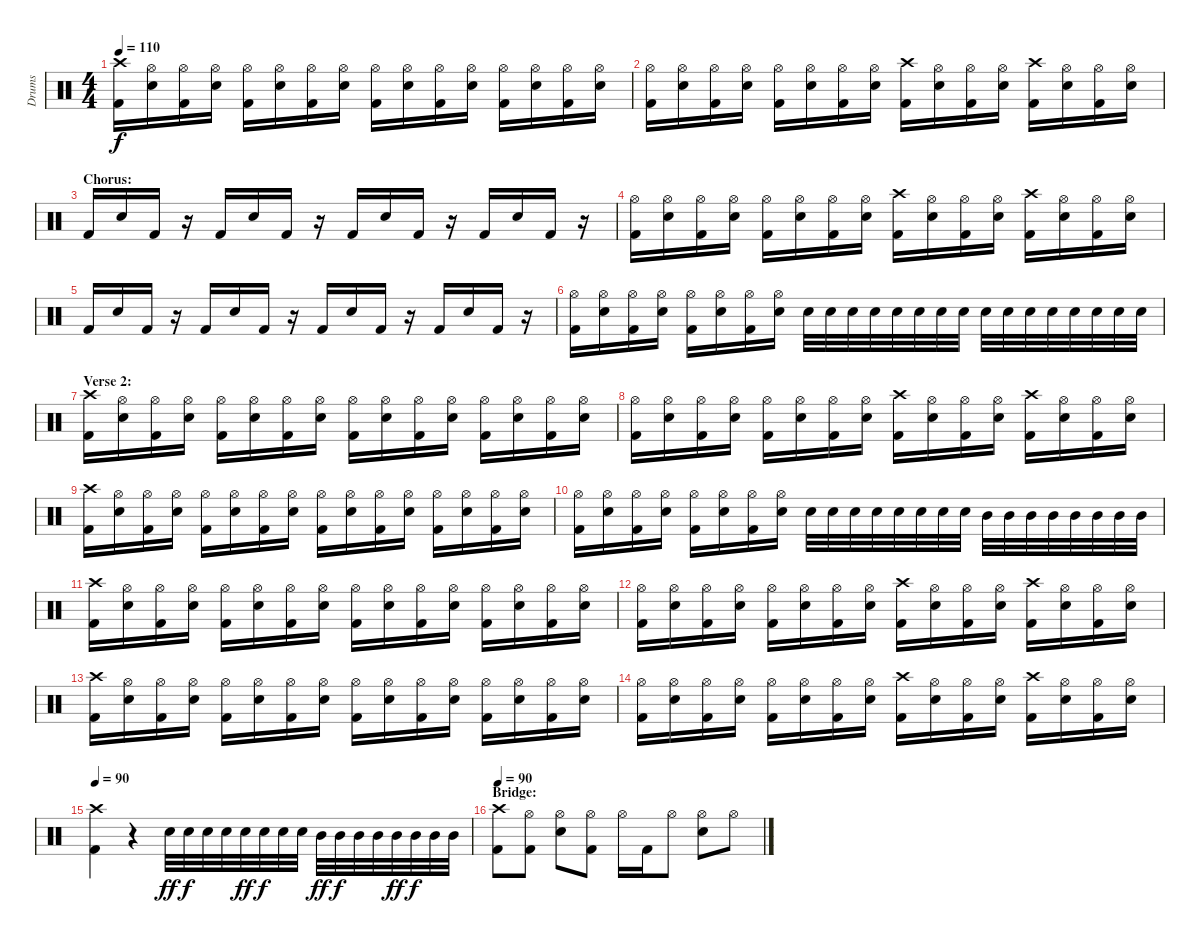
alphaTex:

\track ("Drums" "Drums") {instrument percussion}
\staff {score}
\articulation defaults
\ts (4 4)
\tempo 110
\clef neutral
\ks c
("Crash high (hit)" "Kick (hit) 2").16{dy f} ("Hi-Hat (open)" "Electric Snare (hit)").16 ("Hi-Hat (open)" "Kick (hit) 2").16 ("Hi-Hat (open)" "Electric Snare (hit)").16 ("Hi-Hat (open)" "Kick (hit) 2").16 ("Hi-Hat (open)" "Electric Snare (hit)").16 ("Hi-Hat (open)" "Kick (hit) 2").16 ("Hi-Hat (open)" "Electric Snare (hit)").16 ("Hi-Hat (open)" "Kick (hit) 2").16 ("Hi-Hat (open)" "Electric Snare (hit)").16 ("Hi-Hat (open)" "Kick (hit) 2").16 ("Hi-Hat (open)" "Electric Snare (hit)").16 ("Hi-Hat (open)" "Kick (hit) 2").16 ("Hi-Hat (open)" "Electric Snare (hit)").16 ("Hi-Hat (open)" "Kick (hit) 2").16 ("Hi-Hat (open)" "Electric Snare (hit)").16 |
("Hi-Hat (open)" "Kick (hit) 2").16 ("Hi-Hat (open)" "Electric Snare (hit)").16 ("Hi-Hat (open)" "Kick (hit) 2").16 ("Hi-Hat (open)" "Electric Snare (hit)").16 ("Hi-Hat (open)" "Kick (hit) 2").16 ("Hi-Hat (open)" "Electric Snare (hit)").16 ("Hi-Hat (open)" "Kick (hit) 2").16 ("Hi-Hat (open)" "Electric Snare (hit)").16 ("Crash high (hit)" "Kick (hit) 2").16 ("Hi-Hat (open)" "Electric Snare (hit)").16 ("Hi-Hat (open)" "Kick (hit) 2").16 ("Hi-Hat (open)" "Electric Snare (hit)").16 ("Crash high (hit)" "Kick (hit) 2").16 ("Hi-Hat (open)" "Electric Snare (hit)").16 ("Hi-Hat (open)" "Kick (hit) 2").16 ("Hi-Hat (open)" "Electric Snare (hit)").16 |
\section ("" "Chorus:")
"Kick (hit) 2".16 "Electric Snare (hit)".16 "Kick (hit) 2".16 r.16 "Kick (hit) 2".16 "Electric Snare (hit)".16 "Kick (hit) 2".16 r.16 "Kick (hit) 2".16 "Electric Snare (hit)".16 "Kick (hit) 2".16 r.16 "Kick (hit) 2".16 "Electric Snare (hit)".16 "Kick (hit) 2".16 r.16 |
("Hi-Hat (open)" "Kick (hit) 2").16 ("Hi-Hat (open)" "Electric Snare (hit)").16 ("Hi-Hat (open)" "Kick (hit) 2").16 ("Hi-Hat (open)" "Electric Snare (hit)").16 ("Hi-Hat (open)" "Kick (hit) 2").16 ("Hi-Hat (open)" "Electric Snare (hit)").16 ("Hi-Hat (open)" "Kick (hit) 2").16 ("Hi-Hat (open)" "Electric Snare (hit)").16 ("Crash high (hit)" "Kick (hit) 2").16 ("Hi-Hat (open)" "Electric Snare (hit)").16 ("Hi-Hat (open)" "Kick (hit) 2").16 ("Hi-Hat (open)" "Electric Snare (hit)").16 ("Crash high (hit)" "Kick (hit) 2").16 ("Hi-Hat (open)" "Electric Snare (hit)").16 ("Hi-Hat (open)" "Kick (hit) 2").16 ("Hi-Hat (open)" "Electric Snare (hit)").16 |
"Kick (hit) 2".16 "Electric Snare (hit)".16 "Kick (hit) 2".16 r.16 "Kick (hit) 2".16 "Electric Snare (hit)".16 "Kick (hit) 2".16 r.16 "Kick (hit) 2".16 "Electric Snare (hit)".16 "Kick (hit) 2".16 r.16 "Kick (hit) 2".16 "Electric Snare (hit)".16 "Kick (hit) 2".16 r.16 |
("Hi-Hat (open)" "Kick (hit) 2").16 ("Hi-Hat (open)" "Electric Snare (hit)").16 ("Hi-Hat (open)" "Kick (hit) 2").16 ("Hi-Hat (open)" "Electric Snare (hit)").16 ("Hi-Hat (open)" "Kick (hit) 2").16 ("Hi-Hat (open)" "Electric Snare (hit)").16 ("Hi-Hat (open)" "Kick (hit) 2").16 ("Hi-Hat (open)" "Electric Snare (hit)").16 "Electric Snare (hit)".32 "Electric Snare (hit)".32 "Electric Snare (hit)".32 "Electric Snare (hit)".32 "Electric Snare (hit)".32 "Electric Snare (hit)".32 "Electric Snare (hit)".32 "Electric Snare (hit)".32 "Electric Snare (hit)".32 "Electric Snare (hit)".32 "Electric Snare (hit)".32 "Electric Snare (hit)".32 "Electric Snare (hit)".32 "Electric Snare (hit)".32 "Electric Snare (hit)".32 "Electric Snare (hit)".32 |
\section ("" "Verse 2:")
("Crash high (hit)" "Kick (hit) 2").16 ("Hi-Hat (open)" "Electric Snare (hit)").16 ("Hi-Hat (open)" "Kick (hit) 2").16 ("Hi-Hat (open)" "Electric Snare (hit)").16 ("Hi-Hat (open)" "Kick (hit) 2").16 ("Hi-Hat (open)" "Electric Snare (hit)").16 ("Hi-Hat (open)" "Kick (hit) 2").16 ("Hi-Hat (open)" "Electric Snare (hit)").16 ("Hi-Hat (open)" "Kick (hit) 2").16 ("Hi-Hat (open)" "Electric Snare (hit)").16 ("Hi-Hat (open)" "Kick (hit) 2").16 ("Hi-Hat (open)" "Electric Snare (hit)").16 ("Hi-Hat (open)" "Kick (hit) 2").16 ("Hi-Hat (open)" "Electric Snare (hit)").16 ("Hi-Hat (open)" "Kick (hit) 2").16 ("Hi-Hat (open)" "Electric Snare (hit)").16 |
("Hi-Hat (open)" "Kick (hit) 2").16 ("Hi-Hat (open)" "Electric Snare (hit)").16 ("Hi-Hat (open)" "Kick (hit) 2").16 ("Hi-Hat (open)" "Electric Snare (hit)").16 ("Hi-Hat (open)" "Kick (hit) 2").16 ("Hi-Hat (open)" "Electric Snare (hit)").16 ("Hi-Hat (open)" "Kick (hit) 2").16 ("Hi-Hat (open)" "Electric Snare (hit)").16 ("Crash high (hit)" "Kick (hit) 2").16 ("Hi-Hat (open)" "Electric Snare (hit)").16 ("Hi-Hat (open)" "Kick (hit) 2").16 ("Hi-Hat (open)" "Electric Snare (hit)").16 ("Crash high (hit)" "Kick (hit) 2").16 ("Hi-Hat (open)" "Electric Snare (hit)").16 ("Hi-Hat (open)" "Kick (hit) 2").16 ("Hi-Hat (open)" "Electric Snare (hit)").16 |
("Crash high (hit)" "Kick (hit) 2").16 ("Hi-Hat (open)" "Electric Snare (hit)").16 ("Hi-Hat (open)" "Kick (hit) 2").16 ("Hi-Hat (open)" "Electric Snare (hit)").16 ("Hi-Hat (open)" "Kick (hit) 2").16 ("Hi-Hat (open)" "Electric Snare (hit)").16 ("Hi-Hat (open)" "Kick (hit) 2").16 ("Hi-Hat (open)" "Electric Snare (hit)").16 ("Hi-Hat (open)" "Kick (hit) 2").16 ("Hi-Hat (open)" "Electric Snare (hit)").16 ("Hi-Hat (open)" "Kick (hit) 2").16 ("Hi-Hat (open)" "Electric Snare (hit)").16 ("Hi-Hat (open)" "Kick (hit) 2").16 ("Hi-Hat (open)" "Electric Snare (hit)").16 ("Hi-Hat (open)" "Kick (hit) 2").16 ("Hi-Hat (open)" "Electric Snare (hit)").16 |
("Hi-Hat (open)" "Kick (hit) 2").16 ("Hi-Hat (open)" "Electric Snare (hit)").16 ("Hi-Hat (open)" "Kick (hit) 2").16 ("Hi-Hat (open)" "Electric Snare (hit)").16 ("Hi-Hat (open)" "Kick (hit) 2").16 ("Hi-Hat (open)" "Electric Snare (hit)").16 ("Hi-Hat (open)" "Kick (hit) 2").16 ("Hi-Hat (open)" "Electric Snare (hit)").16 "Electric Snare (hit)".32 "Electric Snare (hit)".32 "Electric Snare (hit)".32 "Electric Snare (hit)".32 "Electric Snare (hit)".32 "Electric Snare (hit)".32 "Electric Snare (hit)".32 "Electric Snare (hit)".32 "Mid Tom (hit)".32 "Mid Tom (hit)".32 "Mid Tom (hit)".32 "Mid Tom (hit)".32 "Mid Tom (hit)".32 "Mid Tom (hit)".32 "Mid Tom (hit)".32 "Mid Tom (hit)".32 |
("Crash high (hit)" "Kick (hit) 2").16 ("Hi-Hat (open)" "Electric Snare (hit)").16 ("Hi-Hat (open)" "Kick (hit) 2").16 ("Hi-Hat (open)" "Electric Snare (hit)").16 ("Hi-Hat (open)" "Kick (hit) 2").16 ("Hi-Hat (open)" "Electric Snare (hit)").16 ("Hi-Hat (open)" "Kick (hit) 2").16 ("Hi-Hat (open)" "Electric Snare (hit)").16 ("Hi-Hat (open)" "Kick (hit) 2").16 ("Hi-Hat (open)" "Electric Snare (hit)").16 ("Hi-Hat (open)" "Kick (hit) 2").16 ("Hi-Hat (open)" "Electric Snare (hit)").16 ("Hi-Hat (open)" "Kick (hit) 2").16 ("Hi-Hat (open)" "Electric Snare (hit)").16 ("Hi-Hat (open)" "Kick (hit) 2").16 ("Hi-Hat (open)" "Electric Snare (hit)").16 |
("Hi-Hat (open)" "Kick (hit) 2").16 ("Hi-Hat (open)" "Electric Snare (hit)").16 ("Hi-Hat (open)" "Kick (hit) 2").16 ("Hi-Hat (open)" "Electric Snare (hit)").16 ("Hi-Hat (open)" "Kick (hit) 2").16 ("Hi-Hat (open)" "Electric Snare (hit)").16 ("Hi-Hat (open)" "Kick (hit) 2").16 ("Hi-Hat (open)" "Electric Snare (hit)").16 ("Crash high (hit)" "Kick (hit) 2").16 ("Hi-Hat (open)" "Electric Snare (hit)").16 ("Hi-Hat (open)" "Kick (hit) 2").16 ("Hi-Hat (open)" "Electric Snare (hit)").16 ("Crash high (hit)" "Kick (hit) 2").16 ("Hi-Hat (open)" "Electric Snare (hit)").16 ("Hi-Hat (open)" "Kick (hit) 2").16 ("Hi-Hat (open)" "Electric Snare (hit)").16 |
("Crash high (hit)" "Kick (hit) 2").16 ("Hi-Hat (open)" "Electric Snare (hit)").16 ("Hi-Hat (open)" "Kick (hit) 2").16 ("Hi-Hat (open)" "Electric Snare (hit)").16 ("Hi-Hat (open)" "Kick (hit) 2").16 ("Hi-Hat (open)" "Electric Snare (hit)").16 ("Hi-Hat (open)" "Kick (hit) 2").16 ("Hi-Hat (open)" "Electric Snare (hit)").16 ("Hi-Hat (open)" "Kick (hit) 2").16 ("Hi-Hat (open)" "Electric Snare (hit)").16 ("Hi-Hat (open)" "Kick (hit) 2").16 ("Hi-Hat (open)" "Electric Snare (hit)").16 ("Hi-Hat (open)" "Kick (hit) 2").16 ("Hi-Hat (open)" "Electric Snare (hit)").16 ("Hi-Hat (open)" "Kick (hit) 2").16 ("Hi-Hat (open)" "Electric Snare (hit)").16 |
("Hi-Hat (open)" "Kick (hit) 2").16 ("Hi-Hat (open)" "Electric Snare (hit)").16 ("Hi-Hat (open)" "Kick (hit) 2").16 ("Hi-Hat (open)" "Electric Snare (hit)").16 ("Hi-Hat (open)" "Kick (hit) 2").16 ("Hi-Hat (open)" "Electric Snare (hit)").16 ("Hi-Hat (open)" "Kick (hit) 2").16 ("Hi-Hat (open)" "Electric Snare (hit)").16 ("Crash high (hit)" "Kick (hit) 2").16 ("Hi-Hat (open)" "Electric Snare (hit)").16 ("Hi-Hat (open)" "Kick (hit) 2").16 ("Hi-Hat (open)" "Electric Snare (hit)").16 ("Crash high (hit)" "Kick (hit) 2").16 ("Hi-Hat (open)" "Electric Snare (hit)").16 ("Hi-Hat (open)" "Kick (hit) 2").16 ("Hi-Hat (open)" "Electric Snare (hit)").16 |
\tempo 90
("Crash high (hit)" "Kick (hit) 2").4 r.4 "Electric Snare (hit)".32{dy ff} "Electric Snare (hit)".32{dy f} "Electric Snare (hit)".32 "Electric Snare (hit)".32 "Electric Snare (hit)".32{dy ff} "Electric Snare (hit)".32{dy f} "Electric Snare (hit)".32 "Electric Snare (hit)".32 "Mid Tom (hit)".32{dy ff} "Mid Tom (hit)".32{dy f} "Mid Tom (hit)".32 "Mid Tom (hit)".32 "Mid Tom (hit)".32{dy ff} "Mid Tom (hit)".32{dy f} "Mid Tom (hit)".32 "Mid Tom (hit)".32 |
\section ("" "Bridge:")
\tempo 90
("Crash high (hit)" "Kick (hit) 2").8 ("Hi-Hat (open)" "Kick (hit) 2").8 ("Hi-Hat (open)" "Electric Snare (hit)").8 ("Hi-Hat (open)" "Kick (hit) 2").8 "Hi-Hat (open)".16 "Kick (hit) 2".16 "Hi-Hat (open)".8 ("Hi-Hat (open)" "Electric Snare (hit)").8 "Hi-Hat (open)".8
